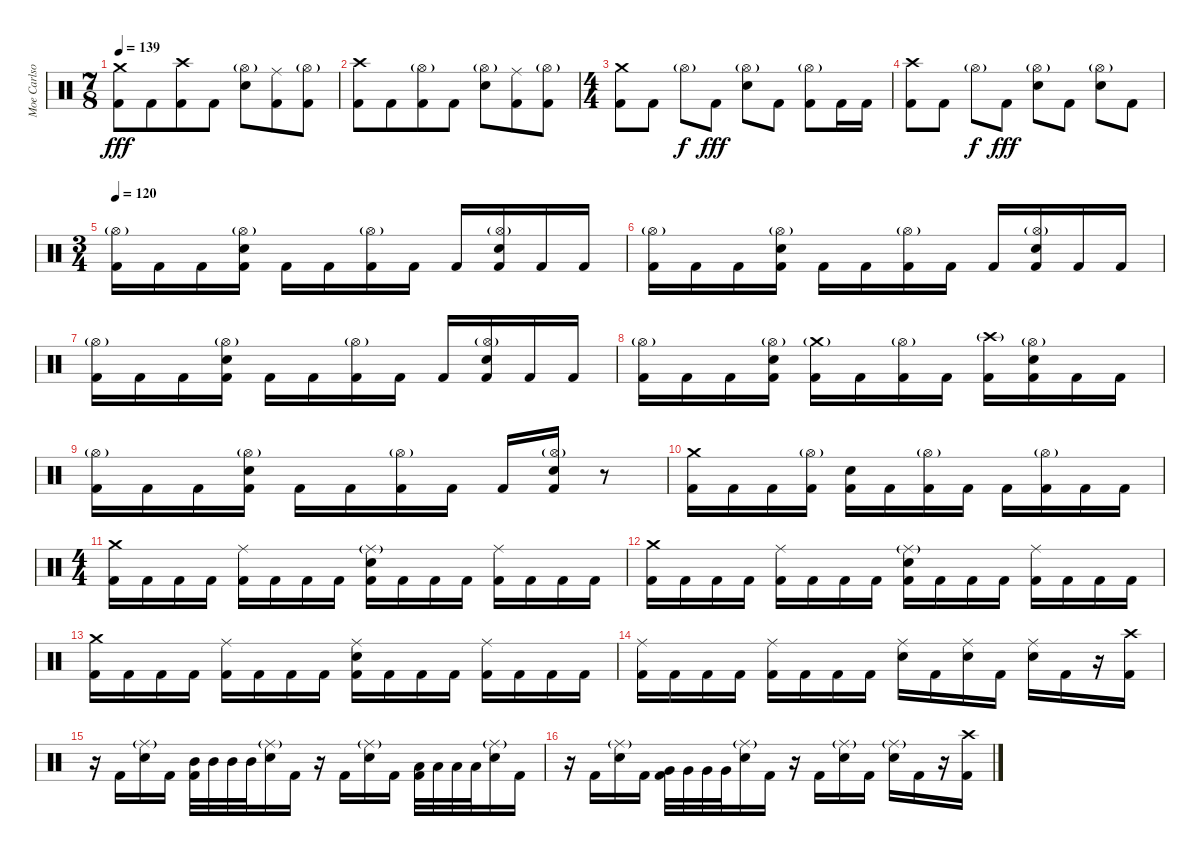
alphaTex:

\track ("Moe Carlson" "Moe Carlso") {instrument percussion}
\staff {score}
\articulation defaults
\ts (7 8)
\tempo 139
\clef neutral
\ks c
("Crash medium (hit)" "Kick (hit) 2").8{dy fff} "Kick (hit) 2".8 ("Crash high (hit)" "Kick (hit) 2").8 "Kick (hit) 2".8 ("Hi-Hat (open)"{g} "Electric Snare (hit)").8 ("Ride (middle)" "Kick (hit) 2").8 ("Hi-Hat (open)"{g} "Kick (hit) 2").8 |
("Crash high (hit)" "Kick (hit) 2").8 "Kick (hit) 2".8 ("Hi-Hat (open)"{g} "Kick (hit) 2").8 "Kick (hit) 2".8 ("Hi-Hat (open)"{g} "Electric Snare (hit)").8 ("Ride (middle)" "Kick (hit) 2").8 ("Hi-Hat (open)"{g} "Kick (hit) 2").8 |
\ts (4 4)
("Crash medium (hit)" "Kick (hit) 2").8 "Kick (hit) 2".8 "Hi-Hat (open)"{g}.8{dy f} "Kick (hit) 2".8{dy fff} ("Hi-Hat (open)"{g} "Electric Snare (hit)").8 "Kick (hit) 2".8 ("Hi-Hat (open)"{g} "Kick (hit) 2").8 "Kick (hit) 2".16 "Kick (hit) 2".16 |
("Crash high (hit)" "Kick (hit) 2").8 "Kick (hit) 2".8 "Hi-Hat (open)"{g}.8{dy f} "Kick (hit) 2".8{dy fff} ("Hi-Hat (open)"{g} "Electric Snare (hit)").8 "Kick (hit) 2".8 ("Hi-Hat (open)"{g} "Electric Snare (hit)").8 "Kick (hit) 2".8 |
\ts (3 4)
\tempo 120
("Hi-Hat (open)"{g} "Kick (hit) 2").16 "Kick (hit) 2".16 "Kick (hit) 2".16 ("Hi-Hat (open)"{g} "Electric Snare (hit)" "Kick (hit) 2").16 "Kick (hit) 2".16 "Kick (hit) 2".16 ("Hi-Hat (open)"{g} "Kick (hit) 2").16 "Kick (hit) 2".16 "Kick (hit) 2".16 ("Hi-Hat (open)"{g} "Electric Snare (hit)" "Kick (hit) 2").16 "Kick (hit) 2".16 "Kick (hit) 2".16 |
("Hi-Hat (open)"{g} "Kick (hit) 2").16 "Kick (hit) 2".16 "Kick (hit) 2".16 ("Hi-Hat (open)"{g} "Electric Snare (hit)" "Kick (hit) 2").16 "Kick (hit) 2".16 "Kick (hit) 2".16 ("Hi-Hat (open)"{g} "Kick (hit) 2").16 "Kick (hit) 2".16 "Kick (hit) 2".16 ("Hi-Hat (open)"{g} "Electric Snare (hit)" "Kick (hit) 2").16 "Kick (hit) 2".16 "Kick (hit) 2".16 |
("Hi-Hat (open)"{g} "Kick (hit) 2").16 "Kick (hit) 2".16 "Kick (hit) 2".16 ("Hi-Hat (open)"{g} "Electric Snare (hit)" "Kick (hit) 2").16 "Kick (hit) 2".16 "Kick (hit) 2".16 ("Hi-Hat (open)"{g} "Kick (hit) 2").16 "Kick (hit) 2".16 "Kick (hit) 2".16 ("Hi-Hat (open)"{g} "Electric Snare (hit)" "Kick (hit) 2").16 "Kick (hit) 2".16 "Kick (hit) 2".16 |
("Hi-Hat (open)"{g} "Kick (hit) 2").16 "Kick (hit) 2".16 "Kick (hit) 2".16 ("Hi-Hat (open)"{g} "Electric Snare (hit)" "Kick (hit) 2").16 ("Crash medium (hit)"{g} "Kick (hit) 2").16 "Kick (hit) 2".16 ("Hi-Hat (open)"{g} "Kick (hit) 2").16 "Kick (hit) 2".16 ("Crash high (hit)"{g} "Kick (hit) 2").16 ("Hi-Hat (open)"{g} "Electric Snare (hit)" "Kick (hit) 2").16 "Kick (hit) 2".16 "Kick (hit) 2".16 |
("Hi-Hat (open)"{g} "Kick (hit) 2").16 "Kick (hit) 2".16 "Kick (hit) 2".16 ("Hi-Hat (open)"{g} "Electric Snare (hit)" "Kick (hit) 2").16 "Kick (hit) 2".16 "Kick (hit) 2".16 ("Hi-Hat (open)"{g} "Kick (hit) 2").16 "Kick (hit) 2".16 "Kick (hit) 2".16 ("Hi-Hat (open)"{g} "Electric Snare (hit)" "Kick (hit) 2").16 r.8 |
("Crash medium (hit)" "Kick (hit) 2").16 "Kick (hit) 2".16 "Kick (hit) 2".16 ("Hi-Hat (open)"{g} "Kick (hit) 2").16 ("Electric Snare (hit)" "Kick (hit) 2").16 "Kick (hit) 2".16 ("Hi-Hat (open)"{g} "Kick (hit) 2").16 "Kick (hit) 2".16 "Kick (hit) 2".16 ("Hi-Hat (open)"{g} "Kick (hit) 2").16 "Kick (hit) 2".16 "Kick (hit) 2".16 |
\ts (4 4)
("Crash medium (hit)" "Kick (hit) 2").16 "Kick (hit) 2".16 "Kick (hit) 2".16 "Kick (hit) 2".16 ("Ride (middle)" "Kick (hit) 2").16 "Kick (hit) 2".16 "Kick (hit) 2".16 "Kick (hit) 2".16 ("Ride (middle)"{g} "Electric Snare (hit)" "Kick (hit) 2").16 "Kick (hit) 2".16 "Kick (hit) 2".16 "Kick (hit) 2".16 ("Ride (middle)" "Kick (hit) 2").16 "Kick (hit) 2".16 "Kick (hit) 2".16 "Kick (hit) 2".16 |
("Crash medium (hit)" "Kick (hit) 2").16 "Kick (hit) 2".16 "Kick (hit) 2".16 "Kick (hit) 2".16 ("Ride (middle)" "Kick (hit) 2").16 "Kick (hit) 2".16 "Kick (hit) 2".16 "Kick (hit) 2".16 ("Ride (middle)"{g} "Electric Snare (hit)" "Kick (hit) 2").16 "Kick (hit) 2".16 "Kick (hit) 2".16 "Kick (hit) 2".16 ("Ride (middle)" "Kick (hit) 2").16 "Kick (hit) 2".16 "Kick (hit) 2".16 "Kick (hit) 2".16 |
("Crash medium (hit)" "Kick (hit) 2").16 "Kick (hit) 2".16 "Kick (hit) 2".16 "Kick (hit) 2".16 ("Ride (middle)" "Kick (hit) 2").16 "Kick (hit) 2".16 "Kick (hit) 2".16 "Kick (hit) 2".16 ("Ride (middle)" "Electric Snare (hit)" "Kick (hit) 2").16 "Kick (hit) 2".16 "Kick (hit) 2".16 "Kick (hit) 2".16 ("Ride (middle)" "Kick (hit) 2").16 "Kick (hit) 2".16 "Kick (hit) 2".16 "Kick (hit) 2".16 |
("Ride (middle)" "Kick (hit) 2").16 "Kick (hit) 2".16 "Kick (hit) 2".16 "Kick (hit) 2".16 ("Ride (middle)" "Kick (hit) 2").16 "Kick (hit) 2".16 "Kick (hit) 2".16 "Kick (hit) 2".16 ("Ride (middle)" "Electric Snare (hit)").16 "Kick (hit) 2".16 ("Ride (middle)" "Electric Snare (hit)").16 "Kick (hit) 2".16 ("Ride (middle)" "Electric Snare (hit)").16 "Kick (hit) 2".16 r.16 ("Crash high (hit)" "Kick (hit) 2").16 |
r.16 "Kick (hit) 2".16 ("Ride (middle)"{g} "Electric Snare (hit)").16 "Kick (hit) 2".16 ("Mid Tom (hit)" "Kick (hit) 2").32 "Mid Tom (hit)".32 "Mid Tom (hit)".32 "Mid Tom (hit)".32 ("Ride (middle)"{g} "Electric Snare (hit)").16 "Kick (hit) 2".16 r.16 "Kick (hit) 2".16 ("Ride (middle)"{g} "Electric Snare (hit)").16 "Kick (hit) 2".16 ("Low Tom (hit)" "Kick (hit) 2").32 "Low Tom (hit)".32 "Low Tom (hit)".32 "Low Tom (hit)".32 ("Ride (middle)"{g} "Electric Snare (hit)").16 "Kick (hit) 2".16 |
r.16 "Kick (hit) 2".16 ("Ride (middle)"{g} "Electric Snare (hit)").16 "Kick (hit) 2".16 ("Very Low Tom (hit)" "Kick (hit) 2").32 "Very Low Tom (hit)".32 "Very Low Tom (hit)".32 "Very Low Tom (hit)".32 ("Ride (middle)"{g} "Electric Snare (hit)").16 "Kick (hit) 2".16 r.16 "Kick (hit) 2".16 ("Ride (middle)"{g} "Electric Snare (hit)").16 "Kick (hit) 2".16 ("Ride (middle)"{g} "Electric Snare (hit)").16 "Kick (hit) 2".16 r.16 ("Crash high (hit)" "Kick (hit) 2").16
